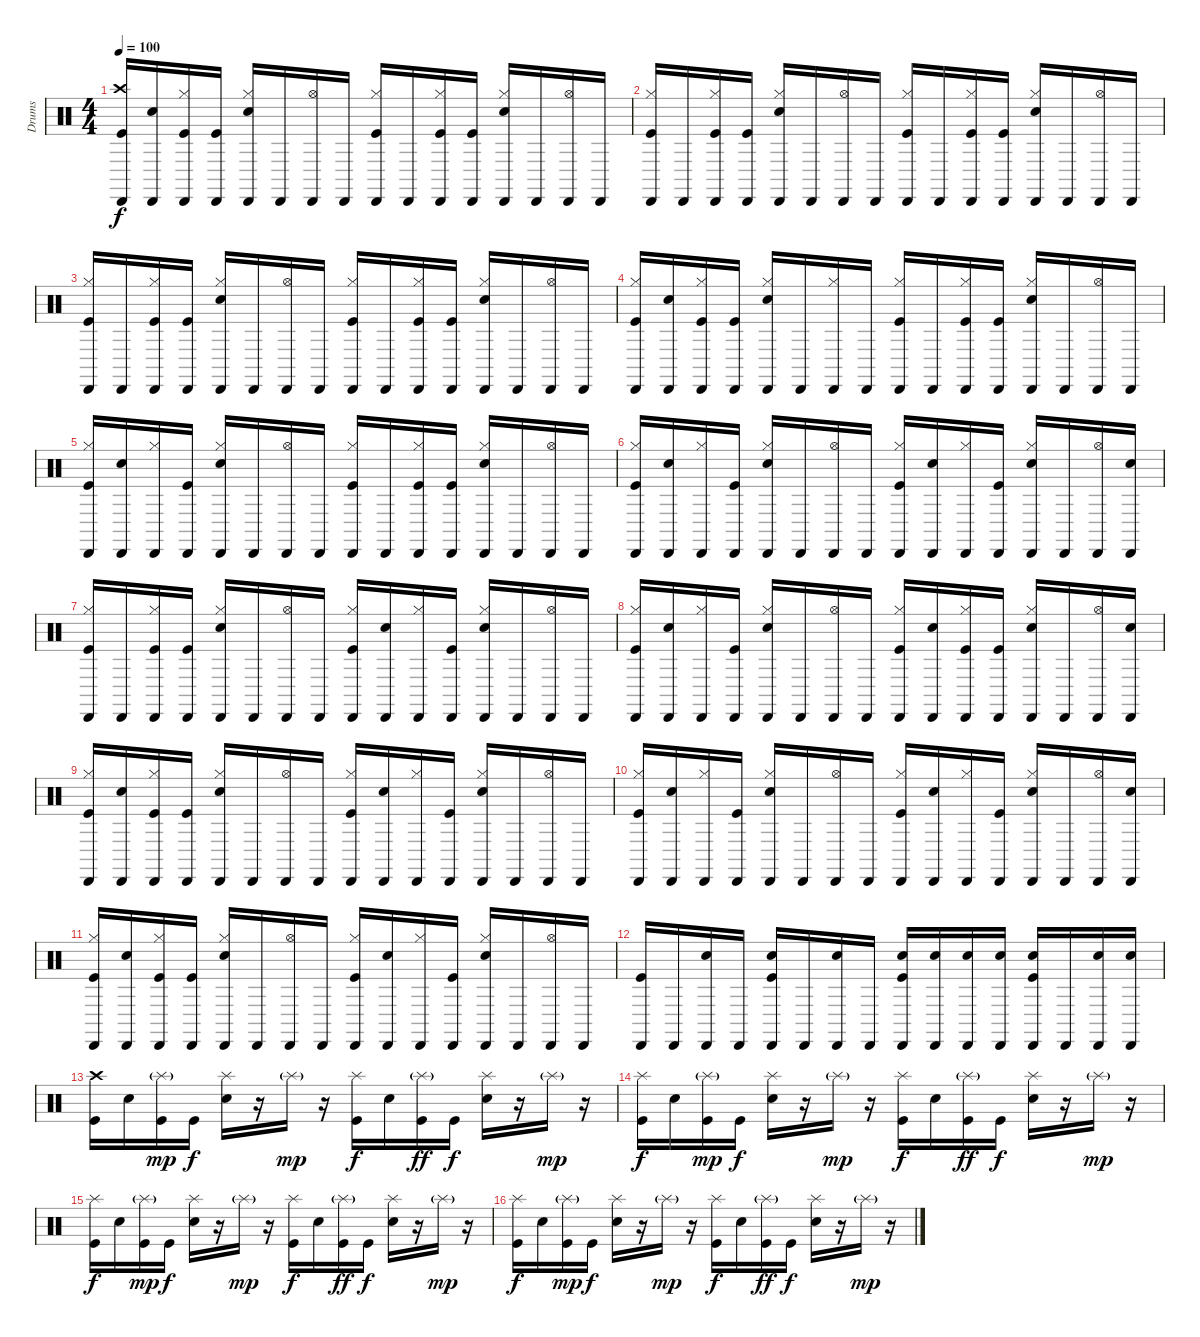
\track ("Drums" "Drums") {instrument percussion}
\staff {score}
\articulation defaults
\ts (4 4)
\tempo 100
\clef neutral
\ks c
("Crash high (hit)" "Kick (hit)" "Cabasa (hit)").16{dy f} ("Snare (hit) 2" "Cabasa (hit)").16 ("Hi-Hat (closed)" "Kick (hit)" "Cabasa (hit)").16 ("Kick (hit)" "Cabasa (hit)").16 ("Hi-Hat (closed)" "Snare (hit) 2" "Cabasa (hit)").16 "Cabasa (hit)".16 ("Hi-Hat (open)" "Cabasa (hit)").16 "Cabasa (hit)".16 ("Hi-Hat (closed)" "Kick (hit)" "Cabasa (hit)").16 "Cabasa (hit)".16 ("Hi-Hat (closed)" "Kick (hit)" "Cabasa (hit)").16 ("Kick (hit)" "Cabasa (hit)").16 ("Hi-Hat (closed)" "Snare (hit) 2" "Cabasa (hit)").16 "Cabasa (hit)".16 ("Hi-Hat (open)" "Cabasa (hit)").16 "Cabasa (hit)".16 |
("Hi-Hat (closed)" "Kick (hit)" "Cabasa (hit)").16 "Cabasa (hit)".16 ("Hi-Hat (closed)" "Kick (hit)" "Cabasa (hit)").16 ("Kick (hit)" "Cabasa (hit)").16 ("Hi-Hat (closed)" "Snare (hit) 2" "Cabasa (hit)").16 "Cabasa (hit)".16 ("Hi-Hat (open)" "Cabasa (hit)").16 "Cabasa (hit)".16 ("Hi-Hat (closed)" "Kick (hit)" "Cabasa (hit)").16 "Cabasa (hit)".16 ("Hi-Hat (closed)" "Kick (hit)" "Cabasa (hit)").16 ("Kick (hit)" "Cabasa (hit)").16 ("Hi-Hat (closed)" "Snare (hit) 2" "Cabasa (hit)").16 "Cabasa (hit)".16 ("Hi-Hat (open)" "Cabasa (hit)").16 "Cabasa (hit)".16 |
("Hi-Hat (closed)" "Kick (hit)" "Cabasa (hit)").16 "Cabasa (hit)".16 ("Hi-Hat (closed)" "Kick (hit)" "Cabasa (hit)").16 ("Kick (hit)" "Cabasa (hit)").16 ("Hi-Hat (closed)" "Snare (hit) 2" "Cabasa (hit)").16 "Cabasa (hit)".16 ("Hi-Hat (open)" "Cabasa (hit)").16 "Cabasa (hit)".16 ("Hi-Hat (closed)" "Kick (hit)" "Cabasa (hit)").16 "Cabasa (hit)".16 ("Hi-Hat (closed)" "Kick (hit)" "Cabasa (hit)").16 ("Kick (hit)" "Cabasa (hit)").16 ("Hi-Hat (closed)" "Snare (hit) 2" "Cabasa (hit)").16 "Cabasa (hit)".16 ("Hi-Hat (open)" "Cabasa (hit)").16 "Cabasa (hit)".16 |
("Hi-Hat (closed)" "Kick (hit)" "Cabasa (hit)").16 ("Snare (hit) 2" "Cabasa (hit)").16 ("Hi-Hat (closed)" "Kick (hit)" "Cabasa (hit)").16 ("Kick (hit)" "Cabasa (hit)").16 ("Hi-Hat (closed)" "Snare (hit) 2" "Cabasa (hit)").16 "Cabasa (hit)".16 ("Hi-Hat (closed)" "Cabasa (hit)").16 "Cabasa (hit)".16 ("Hi-Hat (closed)" "Kick (hit)" "Cabasa (hit)").16 "Cabasa (hit)".16 ("Hi-Hat (closed)" "Kick (hit)" "Cabasa (hit)").16 ("Kick (hit)" "Cabasa (hit)").16 ("Hi-Hat (closed)" "Snare (hit) 2" "Cabasa (hit)").16 "Cabasa (hit)".16 ("Hi-Hat (open)" "Cabasa (hit)").16 "Cabasa (hit)".16 |
("Hi-Hat (closed)" "Kick (hit)" "Cabasa (hit)").16 ("Snare (hit) 2" "Cabasa (hit)").16 ("Hi-Hat (closed)" "Cabasa (hit)").16 ("Kick (hit)" "Cabasa (hit)").16 ("Hi-Hat (closed)" "Snare (hit) 2" "Cabasa (hit)").16 "Cabasa (hit)".16 ("Hi-Hat (open)" "Cabasa (hit)").16 "Cabasa (hit)".16 ("Hi-Hat (closed)" "Kick (hit)" "Cabasa (hit)").16 "Cabasa (hit)".16 ("Hi-Hat (closed)" "Kick (hit)" "Cabasa (hit)").16 ("Kick (hit)" "Cabasa (hit)").16 ("Hi-Hat (closed)" "Snare (hit) 2" "Cabasa (hit)").16 "Cabasa (hit)".16 ("Hi-Hat (open)" "Cabasa (hit)").16 "Cabasa (hit)".16 |
("Hi-Hat (closed)" "Kick (hit)" "Cabasa (hit)").16 ("Snare (hit) 2" "Cabasa (hit)").16 ("Hi-Hat (closed)" "Cabasa (hit)").16 ("Kick (hit)" "Cabasa (hit)").16 ("Hi-Hat (closed)" "Snare (hit) 2" "Cabasa (hit)").16 "Cabasa (hit)".16 ("Hi-Hat (open)" "Cabasa (hit)").16 "Cabasa (hit)".16 ("Hi-Hat (closed)" "Kick (hit)" "Cabasa (hit)").16 ("Snare (hit) 2" "Cabasa (hit)").16 ("Hi-Hat (closed)" "Cabasa (hit)").16 ("Kick (hit)" "Cabasa (hit)").16 ("Hi-Hat (closed)" "Snare (hit) 2" "Cabasa (hit)").16 "Cabasa (hit)".16 ("Hi-Hat (open)" "Cabasa (hit)").16 ("Snare (hit) 2" "Cabasa (hit)").16 |
("Hi-Hat (closed)" "Kick (hit)" "Cabasa (hit)").16 "Cabasa (hit)".16 ("Hi-Hat (closed)" "Kick (hit)" "Cabasa (hit)").16 ("Kick (hit)" "Cabasa (hit)").16 ("Hi-Hat (closed)" "Snare (hit) 2" "Cabasa (hit)").16 "Cabasa (hit)".16 ("Hi-Hat (open)" "Cabasa (hit)").16 "Cabasa (hit)".16 ("Hi-Hat (closed)" "Kick (hit)" "Cabasa (hit)").16 ("Snare (hit) 2" "Cabasa (hit)").16 ("Hi-Hat (closed)" "Cabasa (hit)").16 ("Kick (hit)" "Cabasa (hit)").16 ("Hi-Hat (closed)" "Snare (hit) 2" "Cabasa (hit)").16 "Cabasa (hit)".16 ("Hi-Hat (open)" "Cabasa (hit)").16 "Cabasa (hit)".16 |
("Hi-Hat (closed)" "Kick (hit)" "Cabasa (hit)").16 ("Snare (hit) 2" "Cabasa (hit)").16 ("Hi-Hat (closed)" "Cabasa (hit)").16 ("Kick (hit)" "Cabasa (hit)").16 ("Hi-Hat (closed)" "Snare (hit) 2" "Cabasa (hit)").16 "Cabasa (hit)".16 ("Hi-Hat (open)" "Cabasa (hit)").16 "Cabasa (hit)".16 ("Hi-Hat (closed)" "Kick (hit)" "Cabasa (hit)").16 ("Snare (hit) 2" "Cabasa (hit)").16 ("Hi-Hat (closed)" "Kick (hit)" "Cabasa (hit)").16 ("Kick (hit)" "Cabasa (hit)").16 ("Hi-Hat (closed)" "Snare (hit) 2" "Cabasa (hit)").16 "Cabasa (hit)".16 ("Hi-Hat (open)" "Cabasa (hit)").16 ("Snare (hit) 2" "Cabasa (hit)").16 |
("Hi-Hat (closed)" "Kick (hit)" "Cabasa (hit)").16 ("Snare (hit) 2" "Cabasa (hit)").16 ("Hi-Hat (closed)" "Kick (hit)" "Cabasa (hit)").16 ("Kick (hit)" "Cabasa (hit)").16 ("Hi-Hat (closed)" "Snare (hit) 2" "Cabasa (hit)").16 "Cabasa (hit)".16 ("Hi-Hat (open)" "Cabasa (hit)").16 "Cabasa (hit)".16 ("Hi-Hat (closed)" "Kick (hit)" "Cabasa (hit)").16 ("Snare (hit) 2" "Cabasa (hit)").16 ("Hi-Hat (closed)" "Cabasa (hit)").16 ("Kick (hit)" "Cabasa (hit)").16 ("Hi-Hat (closed)" "Snare (hit) 2" "Cabasa (hit)").16 "Cabasa (hit)".16 ("Hi-Hat (open)" "Cabasa (hit)").16 "Cabasa (hit)".16 |
("Hi-Hat (closed)" "Kick (hit)" "Cabasa (hit)").16 ("Snare (hit) 2" "Cabasa (hit)").16 ("Hi-Hat (closed)" "Cabasa (hit)").16 ("Kick (hit)" "Cabasa (hit)").16 ("Hi-Hat (closed)" "Snare (hit) 2" "Cabasa (hit)").16 "Cabasa (hit)".16 ("Hi-Hat (open)" "Cabasa (hit)").16 "Cabasa (hit)".16 ("Hi-Hat (closed)" "Kick (hit)" "Cabasa (hit)").16 ("Snare (hit) 2" "Cabasa (hit)").16 ("Hi-Hat (closed)" "Cabasa (hit)").16 ("Kick (hit)" "Cabasa (hit)").16 ("Hi-Hat (closed)" "Snare (hit) 2" "Cabasa (hit)").16 "Cabasa (hit)".16 ("Hi-Hat (open)" "Cabasa (hit)").16 ("Snare (hit) 2" "Cabasa (hit)").16 |
("Hi-Hat (closed)" "Kick (hit)" "Cabasa (hit)").16 ("Snare (hit) 2" "Cabasa (hit)").16 ("Hi-Hat (closed)" "Kick (hit)" "Cabasa (hit)").16 ("Kick (hit)" "Cabasa (hit)").16 ("Hi-Hat (closed)" "Snare (hit) 2" "Cabasa (hit)").16 "Cabasa (hit)".16 ("Hi-Hat (open)" "Cabasa (hit)").16 "Cabasa (hit)".16 ("Hi-Hat (closed)" "Kick (hit)" "Cabasa (hit)").16 ("Snare (hit) 2" "Cabasa (hit)").16 ("Hi-Hat (closed)" "Cabasa (hit)").16 ("Kick (hit)" "Cabasa (hit)").16 ("Hi-Hat (closed)" "Snare (hit) 2" "Cabasa (hit)").16 "Cabasa (hit)".16 ("Hi-Hat (open)" "Cabasa (hit)").16 "Cabasa (hit)".16 |
("Kick (hit)" "Cabasa (hit)").16 "Cabasa (hit)".16 ("Snare (hit) 2" "Cabasa (hit)").16 "Cabasa (hit)".16 ("Kick (hit)" "Snare (hit) 2" "Cabasa (hit)").16 "Cabasa (hit)".16 ("Snare (hit) 2" "Cabasa (hit)").16 "Cabasa (hit)".16 ("Kick (hit)" "Snare (hit) 2" "Cabasa (hit)").16 ("Snare (hit) 2" "Cabasa (hit)").16 ("Snare (hit) 2" "Cabasa (hit)").16 ("Snare (hit) 2" "Cabasa (hit)").16 ("Kick (hit)" "Snare (hit) 2" "Cabasa (hit)").16 "Cabasa (hit)".16 ("Snare (hit) 2" "Cabasa (hit)").16 ("Snare (hit) 2" "Cabasa (hit)").16 |
("Crash high (hit)" "Kick (hit)").16 "Snare (hit) 2".16 ("Splash (hit)"{g} "Kick (hit)").16{dy mp} "Kick (hit)".16{dy f} ("Splash (hit)" "Snare (hit) 2").16 r.16 "Splash (hit)"{g}.16{dy mp} r.16 ("Splash (hit)" "Kick (hit)").16{dy f} "Snare (hit) 2".16 ("Splash (hit)"{g} "Kick (hit)").16{dy ff} "Kick (hit)".16{dy f} ("Splash (hit)" "Snare (hit) 2").16 r.16 "Splash (hit)"{g}.16{dy mp} r.16 |
("Splash (hit)" "Kick (hit)").16{dy f} "Snare (hit) 2".16 ("Splash (hit)"{g} "Kick (hit)").16{dy mp} "Kick (hit)".16{dy f} ("Splash (hit)" "Snare (hit) 2").16 r.16 "Splash (hit)"{g}.16{dy mp} r.16 ("Splash (hit)" "Kick (hit)").16{dy f} "Snare (hit) 2".16 ("Splash (hit)"{g} "Kick (hit)").16{dy ff} "Kick (hit)".16{dy f} ("Splash (hit)" "Snare (hit) 2").16 r.16 "Splash (hit)"{g}.16{dy mp} r.16 |
("Splash (hit)" "Kick (hit)").16{dy f} "Snare (hit) 2".16 ("Splash (hit)"{g} "Kick (hit)").16{dy mp} "Kick (hit)".16{dy f} ("Splash (hit)" "Snare (hit) 2").16 r.16 "Splash (hit)"{g}.16{dy mp} r.16 ("Splash (hit)" "Kick (hit)").16{dy f} "Snare (hit) 2".16 ("Splash (hit)"{g} "Kick (hit)").16{dy ff} "Kick (hit)".16{dy f} ("Splash (hit)" "Snare (hit) 2").16 r.16 "Splash (hit)"{g}.16{dy mp} r.16 |
("Splash (hit)" "Kick (hit)").16{dy f} "Snare (hit) 2".16 ("Splash (hit)"{g} "Kick (hit)").16{dy mp} "Kick (hit)".16{dy f} ("Splash (hit)" "Snare (hit) 2").16 r.16 "Splash (hit)"{g}.16{dy mp} r.16 ("Splash (hit)" "Kick (hit)").16{dy f} "Snare (hit) 2".16 ("Splash (hit)"{g} "Kick (hit)").16{dy ff} "Kick (hit)".16{dy f} ("Splash (hit)" "Snare (hit) 2").16 r.16 "Splash (hit)"{g}.16{dy mp} r.16
